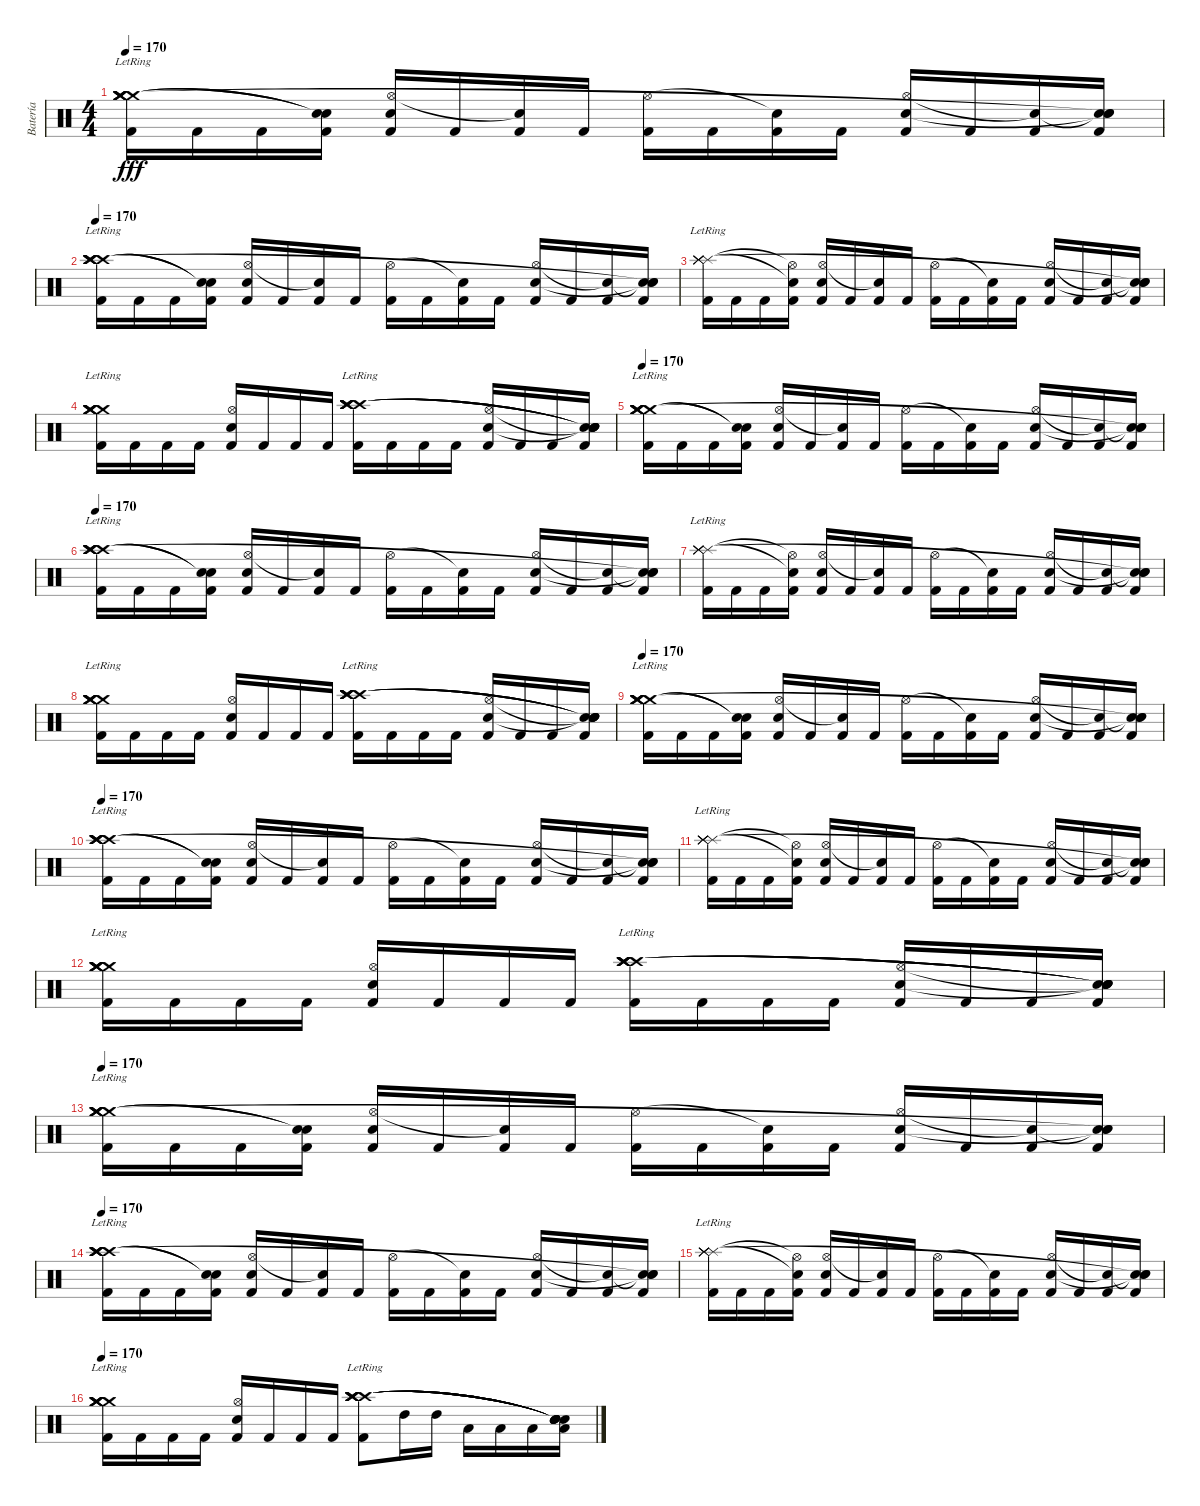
\track ("Batería" "Batería") {instrument percussion}
\staff {score}
\articulation defaults
\ts (4 4)
\tempo 170
\clef neutral
\ks c
("Kick (hit) 2" "Crash medium (hit)"{lr} "Crash medium (hit)"{lr} "Crash medium (hit)"{lr} "Crash medium (hit)"{lr} "Crash medium (hit)"{lr}).16{dy fff} "Kick (hit) 2".16 "Kick (hit) 2".16 ("Kick (hit) 2" "Snare (hit)"{t} "Snare (hit)"{t}).16 ("Kick (hit) 2" "Hi-Hat (open)" "Electric Snare (hit)").16 "Kick (hit) 2".16 ("Kick (hit) 2" "Snare (hit)"{t}).16 "Kick (hit) 2".16 ("Kick (hit) 2" "Hi-Hat (open)").16 "Kick (hit) 2".16 ("Kick (hit) 2" "Snare (hit)"{t}).16 "Kick (hit) 2".16 ("Kick (hit) 2" "Hi-Hat (open)" "Electric Snare (hit)").16 "Kick (hit) 2".16 ("Kick (hit) 2" "Snare (hit)"{t}).16 ("Kick (hit) 2" "Snare (hit)"{t} "Snare (hit)"{t} "Snare (hit)"{t}).16 |
\tempo 170
("Kick (hit) 2" "Crash high (hit)"{lr} "Crash high (hit)"{lr} "Crash high (hit)"{lr} "Crash high (hit)"{lr} "Crash high (hit)"{lr}).16 "Kick (hit) 2".16 "Kick (hit) 2".16 ("Kick (hit) 2" "Snare (hit)"{t} "Snare (hit)"{t}).16 ("Kick (hit) 2" "Hi-Hat (open)" "Electric Snare (hit)").16 "Kick (hit) 2".16 ("Kick (hit) 2" "Snare (hit)"{t}).16 "Kick (hit) 2".16 ("Kick (hit) 2" "Hi-Hat (open)").16 "Kick (hit) 2".16 ("Kick (hit) 2" "Snare (hit)"{t}).16 "Kick (hit) 2".16 ("Kick (hit) 2" "Hi-Hat (open)" "Electric Snare (hit)").16 "Kick (hit) 2".16 ("Kick (hit) 2" "Snare (hit)"{t}).16 ("Kick (hit) 2" "Snare (hit)"{t} "Snare (hit)"{t} "Snare (hit)"{t}).16 |
("Kick (hit) 2"{lr} "Splash (hit)"{lr} "Splash (hit)"{lr} "Splash (hit)"{lr} "Splash (hit)"{lr} "Splash (hit)"{lr}).16 "Kick (hit) 2".16 "Kick (hit) 2".16 ("Kick (hit) 2" "Hi-Hat (open)"{t} "Snare (hit)"{t}).16 ("Kick (hit) 2" "Hi-Hat (open)" "Electric Snare (hit)").16 "Kick (hit) 2".16 ("Kick (hit) 2" "Snare (hit)"{t}).16 "Kick (hit) 2".16 ("Kick (hit) 2" "Hi-Hat (open)").16 "Kick (hit) 2".16 ("Kick (hit) 2" "Snare (hit)"{t}).16 "Kick (hit) 2".16 ("Kick (hit) 2" "Hi-Hat (open)" "Electric Snare (hit)").16 "Kick (hit) 2".16 ("Kick (hit) 2" "Snare (hit)"{t}).16 ("Kick (hit) 2" "Snare (hit)"{t} "Snare (hit)"{t} "Snare (hit)"{t}).16 |
("Kick (hit) 2" "Crash medium (hit)"{lr} "Crash medium (hit)"{lr} "Crash medium (hit)"{lr} "Crash medium (hit)"{lr} "Crash medium (hit)"{lr}).16 "Kick (hit) 2".16 "Kick (hit) 2".16 "Kick (hit) 2".16 ("Kick (hit) 2" "Hi-Hat (open)" "Electric Snare (hit)").16 "Kick (hit) 2".16 "Kick (hit) 2".16 "Kick (hit) 2".16 ("Kick (hit) 2"{lr} "Crash high (hit)"{lr} "Crash high (hit)"{lr} "Crash high (hit)"{lr} "Crash high (hit)"{lr} "Crash high (hit)"{lr}).16 "Kick (hit) 2".16 "Kick (hit) 2".16 "Kick (hit) 2".16 ("Kick (hit) 2" "Hi-Hat (open)" "Electric Snare (hit)").16 "Kick (hit) 2".16 "Kick (hit) 2".16 ("Kick (hit) 2" "Snare (hit)"{t} "Snare (hit)"{t} "Snare (hit)"{t} "Snare (hit)"{t} "Snare (hit)"{t}).16 |
\tempo 170
("Kick (hit) 2" "Crash medium (hit)"{lr} "Crash medium (hit)"{lr} "Crash medium (hit)"{lr} "Crash medium (hit)"{lr} "Crash medium (hit)"{lr}).16 "Kick (hit) 2".16 "Kick (hit) 2".16 ("Kick (hit) 2" "Snare (hit)"{t} "Snare (hit)"{t}).16 ("Kick (hit) 2" "Hi-Hat (open)" "Electric Snare (hit)").16 "Kick (hit) 2".16 ("Kick (hit) 2" "Snare (hit)"{t}).16 "Kick (hit) 2".16 ("Kick (hit) 2" "Hi-Hat (open)").16 "Kick (hit) 2".16 ("Kick (hit) 2" "Snare (hit)"{t}).16 "Kick (hit) 2".16 ("Kick (hit) 2" "Hi-Hat (open)" "Electric Snare (hit)").16 "Kick (hit) 2".16 ("Kick (hit) 2" "Snare (hit)"{t}).16 ("Kick (hit) 2" "Snare (hit)"{t} "Snare (hit)"{t} "Snare (hit)"{t}).16 |
\tempo 170
("Kick (hit) 2" "Crash high (hit)"{lr} "Crash high (hit)"{lr} "Crash high (hit)"{lr} "Crash high (hit)"{lr} "Crash high (hit)"{lr}).16 "Kick (hit) 2".16 "Kick (hit) 2".16 ("Kick (hit) 2" "Snare (hit)"{t} "Snare (hit)"{t}).16 ("Kick (hit) 2" "Hi-Hat (open)" "Electric Snare (hit)").16 "Kick (hit) 2".16 ("Kick (hit) 2" "Snare (hit)"{t}).16 "Kick (hit) 2".16 ("Kick (hit) 2" "Hi-Hat (open)").16 "Kick (hit) 2".16 ("Kick (hit) 2" "Snare (hit)"{t}).16 "Kick (hit) 2".16 ("Kick (hit) 2" "Hi-Hat (open)" "Electric Snare (hit)").16 "Kick (hit) 2".16 ("Kick (hit) 2" "Snare (hit)"{t}).16 ("Kick (hit) 2" "Snare (hit)"{t} "Snare (hit)"{t} "Snare (hit)"{t}).16 |
("Kick (hit) 2"{lr} "Splash (hit)"{lr} "Splash (hit)"{lr} "Splash (hit)"{lr} "Splash (hit)"{lr} "Splash (hit)"{lr}).16 "Kick (hit) 2".16 "Kick (hit) 2".16 ("Kick (hit) 2" "Hi-Hat (open)"{t} "Snare (hit)"{t}).16 ("Kick (hit) 2" "Hi-Hat (open)" "Electric Snare (hit)").16 "Kick (hit) 2".16 ("Kick (hit) 2" "Snare (hit)"{t}).16 "Kick (hit) 2".16 ("Kick (hit) 2" "Hi-Hat (open)").16 "Kick (hit) 2".16 ("Kick (hit) 2" "Snare (hit)"{t}).16 "Kick (hit) 2".16 ("Kick (hit) 2" "Hi-Hat (open)" "Electric Snare (hit)").16 "Kick (hit) 2".16 ("Kick (hit) 2" "Snare (hit)"{t}).16 ("Kick (hit) 2" "Snare (hit)"{t} "Snare (hit)"{t} "Snare (hit)"{t}).16 |
("Kick (hit) 2" "Crash medium (hit)"{lr} "Crash medium (hit)"{lr} "Crash medium (hit)"{lr} "Crash medium (hit)"{lr} "Crash medium (hit)"{lr}).16 "Kick (hit) 2".16 "Kick (hit) 2".16 "Kick (hit) 2".16 ("Kick (hit) 2" "Hi-Hat (open)" "Electric Snare (hit)").16 "Kick (hit) 2".16 "Kick (hit) 2".16 "Kick (hit) 2".16 ("Kick (hit) 2"{lr} "Crash high (hit)"{lr} "Crash high (hit)"{lr} "Crash high (hit)"{lr} "Crash high (hit)"{lr} "Crash high (hit)"{lr}).16 "Kick (hit) 2".16 "Kick (hit) 2".16 "Kick (hit) 2".16 ("Kick (hit) 2" "Hi-Hat (open)" "Electric Snare (hit)").16 "Kick (hit) 2".16 "Kick (hit) 2".16 ("Kick (hit) 2" "Snare (hit)"{t} "Snare (hit)"{t} "Snare (hit)"{t} "Snare (hit)"{t} "Snare (hit)"{t}).16 |
\tempo 170
("Kick (hit) 2" "Crash medium (hit)"{lr} "Crash medium (hit)"{lr} "Crash medium (hit)"{lr} "Crash medium (hit)"{lr} "Crash medium (hit)"{lr}).16 "Kick (hit) 2".16 "Kick (hit) 2".16 ("Kick (hit) 2" "Snare (hit)"{t} "Snare (hit)"{t}).16 ("Kick (hit) 2" "Hi-Hat (open)" "Electric Snare (hit)").16 "Kick (hit) 2".16 ("Kick (hit) 2" "Snare (hit)"{t}).16 "Kick (hit) 2".16 ("Kick (hit) 2" "Hi-Hat (open)").16 "Kick (hit) 2".16 ("Kick (hit) 2" "Snare (hit)"{t}).16 "Kick (hit) 2".16 ("Kick (hit) 2" "Hi-Hat (open)" "Electric Snare (hit)").16 "Kick (hit) 2".16 ("Kick (hit) 2" "Snare (hit)"{t}).16 ("Kick (hit) 2" "Snare (hit)"{t} "Snare (hit)"{t} "Snare (hit)"{t}).16 |
\tempo 170
("Kick (hit) 2" "Crash high (hit)"{lr} "Crash high (hit)"{lr} "Crash high (hit)"{lr} "Crash high (hit)"{lr} "Crash high (hit)"{lr}).16 "Kick (hit) 2".16 "Kick (hit) 2".16 ("Kick (hit) 2" "Snare (hit)"{t} "Snare (hit)"{t}).16 ("Kick (hit) 2" "Hi-Hat (open)" "Electric Snare (hit)").16 "Kick (hit) 2".16 ("Kick (hit) 2" "Snare (hit)"{t}).16 "Kick (hit) 2".16 ("Kick (hit) 2" "Hi-Hat (open)").16 "Kick (hit) 2".16 ("Kick (hit) 2" "Snare (hit)"{t}).16 "Kick (hit) 2".16 ("Kick (hit) 2" "Hi-Hat (open)" "Electric Snare (hit)").16 "Kick (hit) 2".16 ("Kick (hit) 2" "Snare (hit)"{t}).16 ("Kick (hit) 2" "Snare (hit)"{t} "Snare (hit)"{t} "Snare (hit)"{t}).16 |
("Kick (hit) 2"{lr} "Splash (hit)"{lr} "Splash (hit)"{lr} "Splash (hit)"{lr} "Splash (hit)"{lr} "Splash (hit)"{lr}).16 "Kick (hit) 2".16 "Kick (hit) 2".16 ("Kick (hit) 2" "Hi-Hat (open)"{t} "Snare (hit)"{t}).16 ("Kick (hit) 2" "Hi-Hat (open)" "Electric Snare (hit)").16 "Kick (hit) 2".16 ("Kick (hit) 2" "Snare (hit)"{t}).16 "Kick (hit) 2".16 ("Kick (hit) 2" "Hi-Hat (open)").16 "Kick (hit) 2".16 ("Kick (hit) 2" "Snare (hit)"{t}).16 "Kick (hit) 2".16 ("Kick (hit) 2" "Hi-Hat (open)" "Electric Snare (hit)").16 "Kick (hit) 2".16 ("Kick (hit) 2" "Snare (hit)"{t}).16 ("Kick (hit) 2" "Snare (hit)"{t} "Snare (hit)"{t} "Snare (hit)"{t}).16 |
("Kick (hit) 2" "Crash medium (hit)"{lr} "Crash medium (hit)"{lr} "Crash medium (hit)"{lr} "Crash medium (hit)"{lr} "Crash medium (hit)"{lr}).16 "Kick (hit) 2".16 "Kick (hit) 2".16 "Kick (hit) 2".16 ("Kick (hit) 2" "Hi-Hat (open)" "Electric Snare (hit)").16 "Kick (hit) 2".16 "Kick (hit) 2".16 "Kick (hit) 2".16 ("Kick (hit) 2"{lr} "Crash high (hit)"{lr} "Crash high (hit)"{lr} "Crash high (hit)"{lr} "Crash high (hit)"{lr} "Crash high (hit)"{lr}).16 "Kick (hit) 2".16 "Kick (hit) 2".16 "Kick (hit) 2".16 ("Kick (hit) 2" "Hi-Hat (open)" "Electric Snare (hit)").16 "Kick (hit) 2".16 "Kick (hit) 2".16 ("Kick (hit) 2" "Snare (hit)"{t} "Snare (hit)"{t} "Snare (hit)"{t} "Snare (hit)"{t} "Snare (hit)"{t}).16 |
\tempo 170
("Kick (hit) 2" "Crash medium (hit)"{lr} "Crash medium (hit)"{lr} "Crash medium (hit)"{lr} "Crash medium (hit)"{lr} "Crash medium (hit)"{lr}).16 "Kick (hit) 2".16 "Kick (hit) 2".16 ("Kick (hit) 2" "Snare (hit)"{t} "Snare (hit)"{t}).16 ("Kick (hit) 2" "Hi-Hat (open)" "Electric Snare (hit)").16 "Kick (hit) 2".16 ("Kick (hit) 2" "Snare (hit)"{t}).16 "Kick (hit) 2".16 ("Kick (hit) 2" "Hi-Hat (open)").16 "Kick (hit) 2".16 ("Kick (hit) 2" "Snare (hit)"{t}).16 "Kick (hit) 2".16 ("Kick (hit) 2" "Hi-Hat (open)" "Electric Snare (hit)").16 "Kick (hit) 2".16 ("Kick (hit) 2" "Snare (hit)"{t}).16 ("Kick (hit) 2" "Snare (hit)"{t} "Snare (hit)"{t} "Snare (hit)"{t}).16 |
\tempo 170
("Kick (hit) 2" "Crash high (hit)"{lr} "Crash high (hit)"{lr} "Crash high (hit)"{lr} "Crash high (hit)"{lr} "Crash high (hit)"{lr}).16 "Kick (hit) 2".16 "Kick (hit) 2".16 ("Kick (hit) 2" "Snare (hit)"{t} "Snare (hit)"{t}).16 ("Kick (hit) 2" "Hi-Hat (open)" "Electric Snare (hit)").16 "Kick (hit) 2".16 ("Kick (hit) 2" "Snare (hit)"{t}).16 "Kick (hit) 2".16 ("Kick (hit) 2" "Hi-Hat (open)").16 "Kick (hit) 2".16 ("Kick (hit) 2" "Snare (hit)"{t}).16 "Kick (hit) 2".16 ("Kick (hit) 2" "Hi-Hat (open)" "Electric Snare (hit)").16 "Kick (hit) 2".16 ("Kick (hit) 2" "Snare (hit)"{t}).16 ("Kick (hit) 2" "Snare (hit)"{t} "Snare (hit)"{t} "Snare (hit)"{t}).16 |
("Kick (hit) 2"{lr} "Splash (hit)"{lr} "Splash (hit)"{lr} "Splash (hit)"{lr} "Splash (hit)"{lr} "Splash (hit)"{lr}).16 "Kick (hit) 2".16 "Kick (hit) 2".16 ("Kick (hit) 2" "Hi-Hat (open)"{t} "Snare (hit)"{t}).16 ("Kick (hit) 2" "Hi-Hat (open)" "Electric Snare (hit)").16 "Kick (hit) 2".16 ("Kick (hit) 2" "Snare (hit)"{t}).16 "Kick (hit) 2".16 ("Kick (hit) 2" "Hi-Hat (open)").16 "Kick (hit) 2".16 ("Kick (hit) 2" "Snare (hit)"{t}).16 "Kick (hit) 2".16 ("Kick (hit) 2" "Hi-Hat (open)" "Electric Snare (hit)").16 "Kick (hit) 2".16 ("Kick (hit) 2" "Snare (hit)"{t}).16 ("Kick (hit) 2" "Snare (hit)"{t} "Snare (hit)"{t} "Snare (hit)"{t}).16 |
\tempo 170
("Kick (hit) 2" "Crash medium (hit)"{lr} "Crash medium (hit)"{lr} "Crash medium (hit)"{lr} "Crash medium (hit)"{lr} "Crash medium (hit)"{lr}).16 "Kick (hit) 2".16 "Kick (hit) 2".16 "Kick (hit) 2".16 ("Kick (hit) 2" "Hi-Hat (open)" "Electric Snare (hit)").16 "Kick (hit) 2".16 "Kick (hit) 2".16 "Kick (hit) 2".16 ("Kick (hit) 2"{lr} "Crash high (hit)"{lr} "Crash high (hit)"{lr} "Crash high (hit)"{lr} "Crash high (hit)"{lr} "Crash high (hit)"{lr}).8 "High Tom (hit)".16 "High Tom (hit)".16 "Low Tom (hit)".16 "Low Tom (hit)".16 "Low Floor Tom (hit)".16 ("Low Floor Tom (hit)" "Snare (hit)"{t} "Snare (hit)"{t} "Snare (hit)"{t} "Snare (hit)"{t} "Snare (hit)"{t}).16
